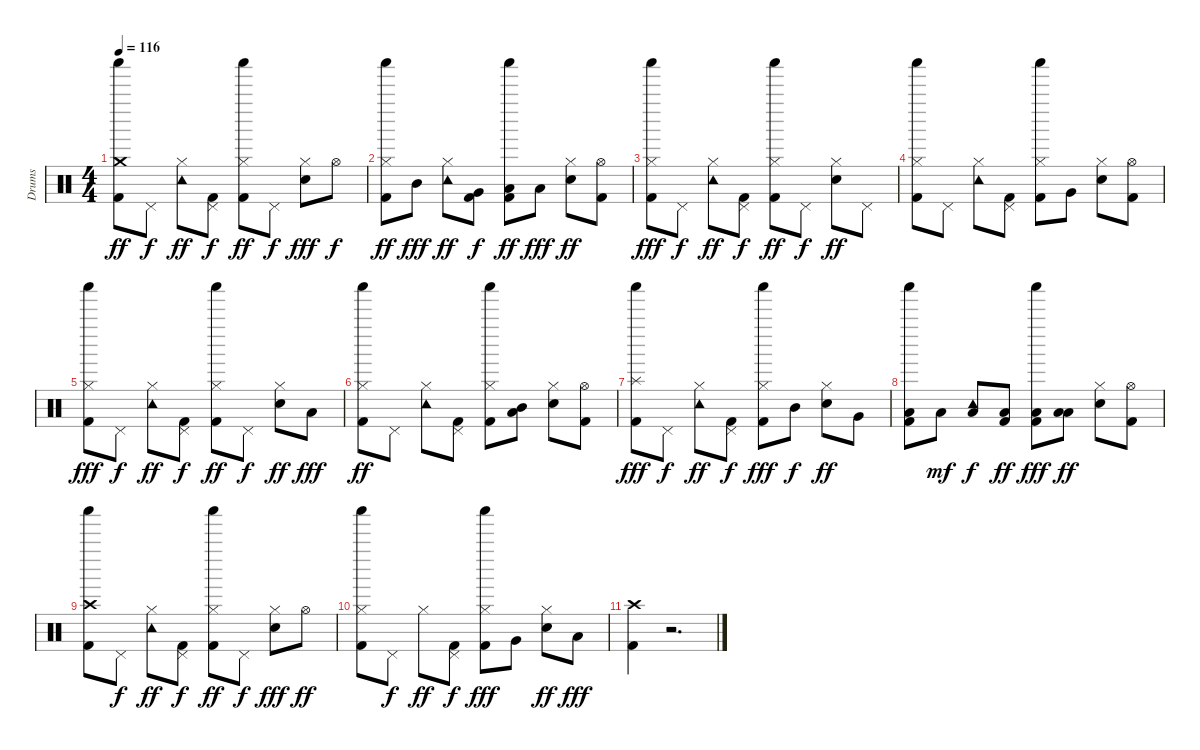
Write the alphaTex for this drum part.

\track ("Drums" "Drums") {instrument percussion}
\staff {score}
\articulation defaults
\ts (4 4)
\tempo 116
\clef neutral
\ks c
("Shaker (hit)" "Kick (hit) 2" "Crash medium (hit)").8{dy ff} "Pedal Hi-Hat (hit)".8{dy f} ("Hi-Hat (closed)" "Tambourine (hit)").8{dy ff} ("Pedal Hi-Hat (hit)" "Kick (hit) 2").8{dy f} ("Shaker (hit)" "Kick (hit) 2" "Hi-Hat (closed)").8{dy ff} "Pedal Hi-Hat (hit)".8{dy f} ("Snare (hit) 2" "Hi-Hat (closed)").8{dy fff} "Hi-Hat (open)".8{dy f} |
("Shaker (hit)" "Kick (hit) 2" "Hi-Hat (closed)").8{dy ff} "Mid Tom (hit)".8{dy fff} ("Hi-Hat (closed)" "Tambourine (hit)").8{dy ff} ("Very Low Tom (hit)" "Kick (hit) 2").8{dy f} ("Shaker (hit)" "Kick (hit) 2" "Low Floor Tom (hit)").8{dy ff} "Low Floor Tom (hit)".8{dy fff} ("Hi-Hat (closed)" "Snare (hit) 2").8{dy ff} ("Kick (hit) 2" "Hi-Hat (open)").8 |
("Shaker (hit)" "Kick (hit) 2" "Hi-Hat (closed)").8{dy fff} "Pedal Hi-Hat (hit)".8{dy f} ("Hi-Hat (closed)" "Tambourine (hit)").8{dy ff} ("Pedal Hi-Hat (hit)" "Kick (hit) 2").8{dy f} ("Shaker (hit)" "Kick (hit) 2" "Hi-Hat (closed)").8{dy ff} "Pedal Hi-Hat (hit)".8{dy f} ("Snare (hit) 2" "Hi-Hat (closed)").8{dy ff} "Pedal Hi-Hat (hit)".8 |
("Shaker (hit)" "Kick (hit) 2" "Hi-Hat (closed)").8 "Pedal Hi-Hat (hit)".8 ("Hi-Hat (closed)" "Tambourine (hit)").8 ("Kick (hit) 2" "Pedal Hi-Hat (hit)").8 ("Shaker (hit)" "Kick (hit) 2" "Hi-Hat (closed)").8 "Very Low Tom (hit)".8 ("Hi-Hat (closed)" "Snare (hit) 2").8 ("Kick (hit) 2" "Hi-Hat (open)").8 |
("Shaker (hit)" "Kick (hit) 2" "Hi-Hat (closed)").8{dy fff} "Pedal Hi-Hat (hit)".8{dy f} ("Hi-Hat (closed)" "Tambourine (hit)").8{dy ff} ("Pedal Hi-Hat (hit)" "Kick (hit) 2").8{dy f} ("Shaker (hit)" "Kick (hit) 2" "Hi-Hat (closed)").8{dy ff} "Pedal Hi-Hat (hit)".8{dy f} ("Snare (hit) 2" "Hi-Hat (closed)").8{dy ff} "Low Tom (hit)".8{dy fff} |
("Shaker (hit)" "Kick (hit) 2" "Hi-Hat (closed)").8{dy ff} "Pedal Hi-Hat (hit)".8 ("Hi-Hat (closed)" "Tambourine (hit)").8 ("Kick (hit) 2" "Pedal Hi-Hat (hit)").8 ("Shaker (hit)" "Kick (hit) 2" "Hi-Hat (closed)").8 ("Mid Tom (hit)" "Low Floor Tom (hit)").8 ("Hi-Hat (closed)" "Snare (hit) 2").8 ("Kick (hit) 2" "Hi-Hat (open)").8 |
("Shaker (hit)" "Kick (hit) 2" "Splash (hit)").8{dy fff} "Pedal Hi-Hat (hit)".8{dy f} ("Hi-Hat (closed)" "Tambourine (hit)").8{dy ff} ("Pedal Hi-Hat (hit)" "Kick (hit) 2").8{dy f} ("Shaker (hit)" "Kick (hit) 2" "Hi-Hat (closed)").8{dy fff} "Mid Tom (hit)".8{dy f} ("Snare (hit) 2" "Hi-Hat (closed)").8{dy ff} "Very Low Tom (hit)".8 |
("Shaker (hit)" "Kick (hit) 2" "Low Floor Tom (hit)").8 "Low Floor Tom (hit)".8{dy mf} ("Low Floor Tom (hit)" "Tambourine (hit)").8{dy f} ("Kick (hit) 2" "Low Floor Tom (hit)").8{dy ff} ("Shaker (hit)" "Kick (hit) 2" "Low Floor Tom (hit)").8{dy fff} ("Low Tom (hit)" "Low Floor Tom (hit)").8{dy ff} ("Hi-Hat (closed)" "Snare (hit) 2").8 ("Kick (hit) 2" "Hi-Hat (open)").8 |
("Shaker (hit)" "Kick (hit) 2" "Crash high (hit)").8 "Pedal Hi-Hat (hit)".8{dy f} ("Hi-Hat (closed)" "Tambourine (hit)").8{dy ff} ("Pedal Hi-Hat (hit)" "Kick (hit) 2").8{dy f} ("Shaker (hit)" "Kick (hit) 2" "Hi-Hat (closed)").8{dy ff} "Pedal Hi-Hat (hit)".8{dy f} ("Snare (hit) 2" "Hi-Hat (closed)").8{dy fff} "Hi-Hat (open)".8{dy ff} |
("Shaker (hit)" "Kick (hit) 2" "Hi-Hat (closed)").8 "Pedal Hi-Hat (hit)".8{dy f} "Hi-Hat (closed)".8{dy ff} ("Pedal Hi-Hat (hit)" "Kick (hit) 2").8{dy f} ("Shaker (hit)" "Kick (hit) 2" "Hi-Hat (closed)").8{dy fff} "Very Low Tom (hit)".8 ("Snare (hit) 2" "Hi-Hat (closed)").8{dy ff} "Low Floor Tom (hit)".8{dy fff} |
("Kick (hit) 2" "Crash high (hit)").4 r.2{d}
